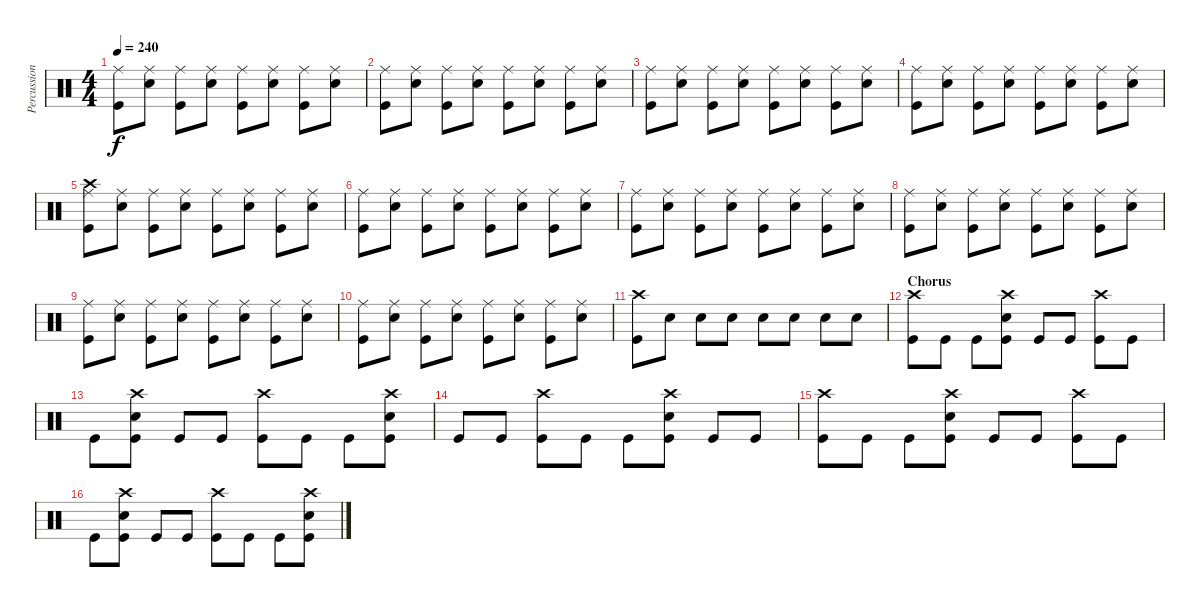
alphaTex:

\track ("Percussion" "Percussion") {instrument percussion}
\staff {score}
\articulation defaults
\ts (4 4)
\tempo 240
\clef neutral
\ks c
("Ride (middle)" "Kick (hit)").8{dy f} ("Electric Snare (hit)" "Ride (middle)").8 ("Ride (middle)" "Kick (hit)").8 ("Electric Snare (hit)" "Ride (middle)").8 ("Ride (middle)" "Kick (hit)").8 ("Electric Snare (hit)" "Ride (middle)").8 ("Ride (middle)" "Kick (hit)").8 ("Electric Snare (hit)" "Ride (middle)").8 |
("Ride (middle)" "Kick (hit)").8 ("Electric Snare (hit)" "Ride (middle)").8 ("Ride (middle)" "Kick (hit)").8 ("Electric Snare (hit)" "Ride (middle)").8 ("Ride (middle)" "Kick (hit)").8 ("Electric Snare (hit)" "Ride (middle)").8 ("Ride (middle)" "Kick (hit)").8 ("Electric Snare (hit)" "Ride (middle)").8 |
("Ride (middle)" "Kick (hit)").8 ("Electric Snare (hit)" "Ride (middle)").8 ("Ride (middle)" "Kick (hit)").8 ("Electric Snare (hit)" "Ride (middle)").8 ("Ride (middle)" "Kick (hit)").8 ("Electric Snare (hit)" "Ride (middle)").8 ("Ride (middle)" "Kick (hit)").8 ("Electric Snare (hit)" "Ride (middle)").8 |
("Ride (middle)" "Kick (hit)").8 ("Electric Snare (hit)" "Ride (middle)").8 ("Ride (middle)" "Kick (hit)").8 ("Electric Snare (hit)" "Ride (middle)").8 ("Ride (middle)" "Kick (hit)").8 ("Electric Snare (hit)" "Ride (middle)").8 ("Ride (middle)" "Kick (hit)").8 ("Electric Snare (hit)" "Ride (middle)").8 |
("Ride (middle)" "Crash high (hit)" "Kick (hit)").8 ("Electric Snare (hit)" "Ride (middle)").8 ("Ride (middle)" "Kick (hit)").8 ("Electric Snare (hit)" "Ride (middle)").8 ("Ride (middle)" "Kick (hit)").8 ("Electric Snare (hit)" "Ride (middle)").8 ("Ride (middle)" "Kick (hit)").8 ("Electric Snare (hit)" "Ride (middle)").8 |
("Ride (middle)" "Kick (hit)").8 ("Electric Snare (hit)" "Ride (middle)").8 ("Ride (middle)" "Kick (hit)").8 ("Electric Snare (hit)" "Ride (middle)").8 ("Ride (middle)" "Kick (hit)").8 ("Electric Snare (hit)" "Ride (middle)").8 ("Ride (middle)" "Kick (hit)").8 ("Electric Snare (hit)" "Ride (middle)").8 |
("Ride (middle)" "Kick (hit)").8 ("Electric Snare (hit)" "Ride (middle)").8 ("Ride (middle)" "Kick (hit)").8 ("Electric Snare (hit)" "Ride (middle)").8 ("Ride (middle)" "Kick (hit)").8 ("Electric Snare (hit)" "Ride (middle)").8 ("Ride (middle)" "Kick (hit)").8 ("Electric Snare (hit)" "Ride (middle)").8 |
("Ride (middle)" "Kick (hit)").8 ("Electric Snare (hit)" "Ride (middle)").8 ("Ride (middle)" "Kick (hit)").8 ("Electric Snare (hit)" "Ride (middle)").8 ("Ride (middle)" "Kick (hit)").8 ("Electric Snare (hit)" "Ride (middle)").8 ("Ride (middle)" "Kick (hit)").8 ("Electric Snare (hit)" "Ride (middle)").8 |
("Ride (middle)" "Kick (hit)").8 ("Electric Snare (hit)" "Ride (middle)").8 ("Ride (middle)" "Kick (hit)").8 ("Electric Snare (hit)" "Ride (middle)").8 ("Ride (middle)" "Kick (hit)").8 ("Electric Snare (hit)" "Ride (middle)").8 ("Ride (middle)" "Kick (hit)").8 ("Electric Snare (hit)" "Ride (middle)").8 |
("Ride (middle)" "Kick (hit)").8 ("Electric Snare (hit)" "Ride (middle)").8 ("Ride (middle)" "Kick (hit)").8 ("Electric Snare (hit)" "Ride (middle)").8 ("Ride (middle)" "Kick (hit)").8 ("Electric Snare (hit)" "Ride (middle)").8 ("Ride (middle)" "Kick (hit)").8 ("Electric Snare (hit)" "Ride (middle)").8 |
("Crash high (hit)" "Kick (hit)").8 "Electric Snare (hit)".8 "Electric Snare (hit)".8 "Electric Snare (hit)".8 "Electric Snare (hit)".8 "Electric Snare (hit)".8 "Electric Snare (hit)".8 "Electric Snare (hit)".8 |
\section ("" "Chorus")
("Crash high (hit)" "Kick (hit)").8 "Kick (hit)".8 "Kick (hit)".8 ("Electric Snare (hit)" "Crash high (hit)" "Kick (hit)").8 "Kick (hit)".8 "Kick (hit)".8 ("Crash high (hit)" "Kick (hit)").8 "Kick (hit)".8 |
"Kick (hit)".8 ("Electric Snare (hit)" "Crash high (hit)" "Kick (hit)").8 "Kick (hit)".8 "Kick (hit)".8 ("Crash high (hit)" "Kick (hit)").8 "Kick (hit)".8 "Kick (hit)".8 ("Electric Snare (hit)" "Crash high (hit)" "Kick (hit)").8 |
"Kick (hit)".8 "Kick (hit)".8 ("Crash high (hit)" "Kick (hit)").8 "Kick (hit)".8 "Kick (hit)".8 ("Electric Snare (hit)" "Crash high (hit)" "Kick (hit)").8 "Kick (hit)".8 "Kick (hit)".8 |
("Crash high (hit)" "Kick (hit)").8 "Kick (hit)".8 "Kick (hit)".8 ("Electric Snare (hit)" "Crash high (hit)" "Kick (hit)").8 "Kick (hit)".8 "Kick (hit)".8 ("Crash high (hit)" "Kick (hit)").8 "Kick (hit)".8 |
"Kick (hit)".8 ("Electric Snare (hit)" "Crash high (hit)" "Kick (hit)").8 "Kick (hit)".8 "Kick (hit)".8 ("Crash high (hit)" "Kick (hit)").8 "Kick (hit)".8 "Kick (hit)".8 ("Electric Snare (hit)" "Crash high (hit)" "Kick (hit)").8
